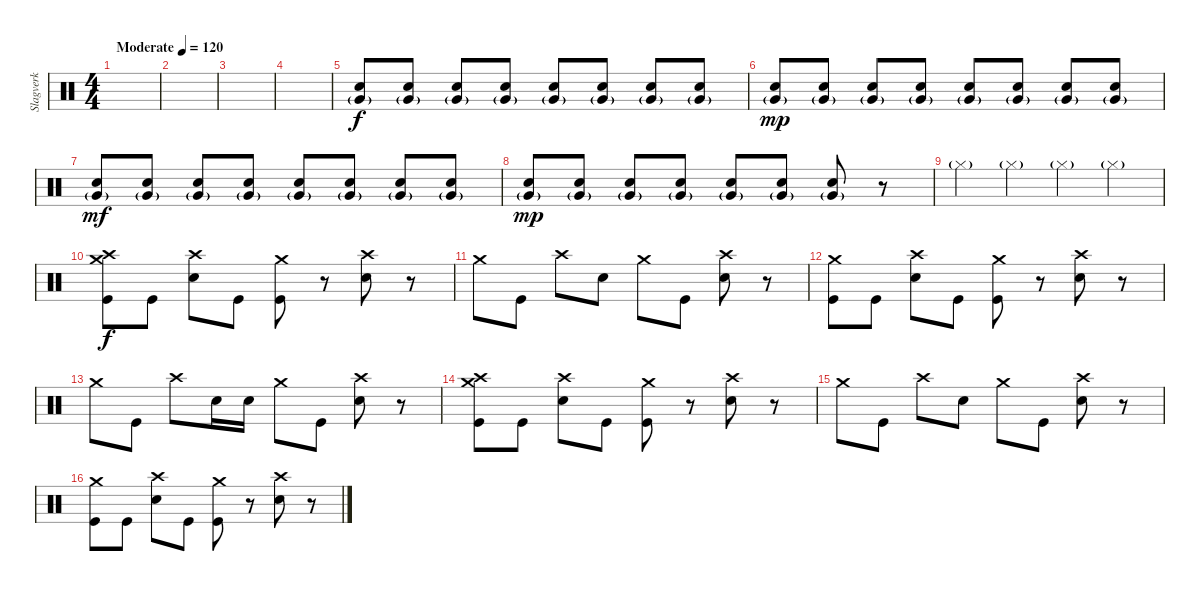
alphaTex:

\track ("Slagverk" "Slagverk") {instrument percussion}
\staff {score}
\articulation defaults
\ts (4 4)
\tempo (120 "Moderate")
\clef neutral
\ks c
|
|
|
|
("Very Low Tom (hit)"{g} "Snare (hit) 2").8 ("Very Low Tom (hit)"{g} "Snare (hit) 2").8 ("Very Low Tom (hit)"{g} "Snare (hit) 2").8 ("Very Low Tom (hit)"{g} "Snare (hit) 2").8 ("Very Low Tom (hit)"{g} "Snare (hit) 2").8 ("Very Low Tom (hit)"{g} "Snare (hit) 2").8 ("Very Low Tom (hit)"{g} "Snare (hit) 2").8 ("Very Low Tom (hit)"{g} "Snare (hit) 2").8 |
("Very Low Tom (hit)"{g} "Snare (hit) 2").8{dy mp} ("Very Low Tom (hit)"{g} "Snare (hit) 2").8 ("Very Low Tom (hit)"{g} "Snare (hit) 2").8 ("Very Low Tom (hit)"{g} "Snare (hit) 2").8 ("Very Low Tom (hit)"{g} "Snare (hit) 2").8 ("Very Low Tom (hit)"{g} "Snare (hit) 2").8 ("Very Low Tom (hit)"{g} "Snare (hit) 2").8 ("Very Low Tom (hit)"{g} "Snare (hit) 2").8 |
("Very Low Tom (hit)"{g} "Snare (hit) 2").8{dy mf} ("Very Low Tom (hit)"{g} "Snare (hit) 2").8 ("Very Low Tom (hit)"{g} "Snare (hit) 2").8 ("Very Low Tom (hit)"{g} "Snare (hit) 2").8 ("Very Low Tom (hit)"{g} "Snare (hit) 2").8 ("Very Low Tom (hit)"{g} "Snare (hit) 2").8 ("Very Low Tom (hit)"{g} "Snare (hit) 2").8 ("Very Low Tom (hit)"{g} "Snare (hit) 2").8 |
("Very Low Tom (hit)"{g} "Snare (hit) 2").8{dy mp} ("Very Low Tom (hit)"{g} "Snare (hit) 2").8 ("Very Low Tom (hit)"{g} "Snare (hit) 2").8 ("Very Low Tom (hit)"{g} "Snare (hit) 2").8 ("Very Low Tom (hit)"{g} "Snare (hit) 2").8 ("Very Low Tom (hit)"{g} "Snare (hit) 2").8 ("Very Low Tom (hit)"{g} "Snare (hit) 2").8 r.8 |
"Hi-Hat (closed)"{g}.4 "Hi-Hat (closed)"{g}.4 "Hi-Hat (closed)"{g}.4 "Hi-Hat (closed)"{g}.4 |
("Crash medium (hit)" "Crash high (hit)" "Kick (hit)").8{dy f} "Kick (hit)".8 ("Crash high (hit)" "Snare (hit) 2").8 "Kick (hit)".8 ("Crash medium (hit)" "Kick (hit)").8 r.8 ("Crash high (hit)" "Snare (hit) 2").8 r.8 |
"Crash medium (hit)".8 "Kick (hit)".8 "Crash high (hit)".8 "Snare (hit) 2".8 "Crash medium (hit)".8 "Kick (hit)".8 ("Crash high (hit)" "Snare (hit) 2").8 r.8 |
("Crash medium (hit)" "Kick (hit)").8 "Kick (hit)".8 ("Crash high (hit)" "Snare (hit) 2").8 "Kick (hit)".8 ("Crash medium (hit)" "Kick (hit)").8 r.8 ("Crash high (hit)" "Snare (hit) 2").8 r.8 |
"Crash medium (hit)".8 "Kick (hit)".8 "Crash high (hit)".8 "Snare (hit) 2".16 "Snare (hit) 2".16 "Crash medium (hit)".8 "Kick (hit)".8 ("Crash high (hit)" "Snare (hit) 2").8 r.8 |
("Crash medium (hit)" "Crash high (hit)" "Kick (hit)").8 "Kick (hit)".8 ("Crash high (hit)" "Snare (hit) 2").8 "Kick (hit)".8 ("Crash medium (hit)" "Kick (hit)").8 r.8 ("Crash high (hit)" "Snare (hit) 2").8 r.8 |
"Crash medium (hit)".8 "Kick (hit)".8 "Crash high (hit)".8 "Snare (hit) 2".8 "Crash medium (hit)".8 "Kick (hit)".8 ("Crash high (hit)" "Snare (hit) 2").8 r.8 |
("Crash medium (hit)" "Kick (hit)").8 "Kick (hit)".8 ("Crash high (hit)" "Snare (hit) 2").8 "Kick (hit)".8 ("Crash medium (hit)" "Kick (hit)").8 r.8 ("Crash high (hit)" "Snare (hit) 2").8 r.8
